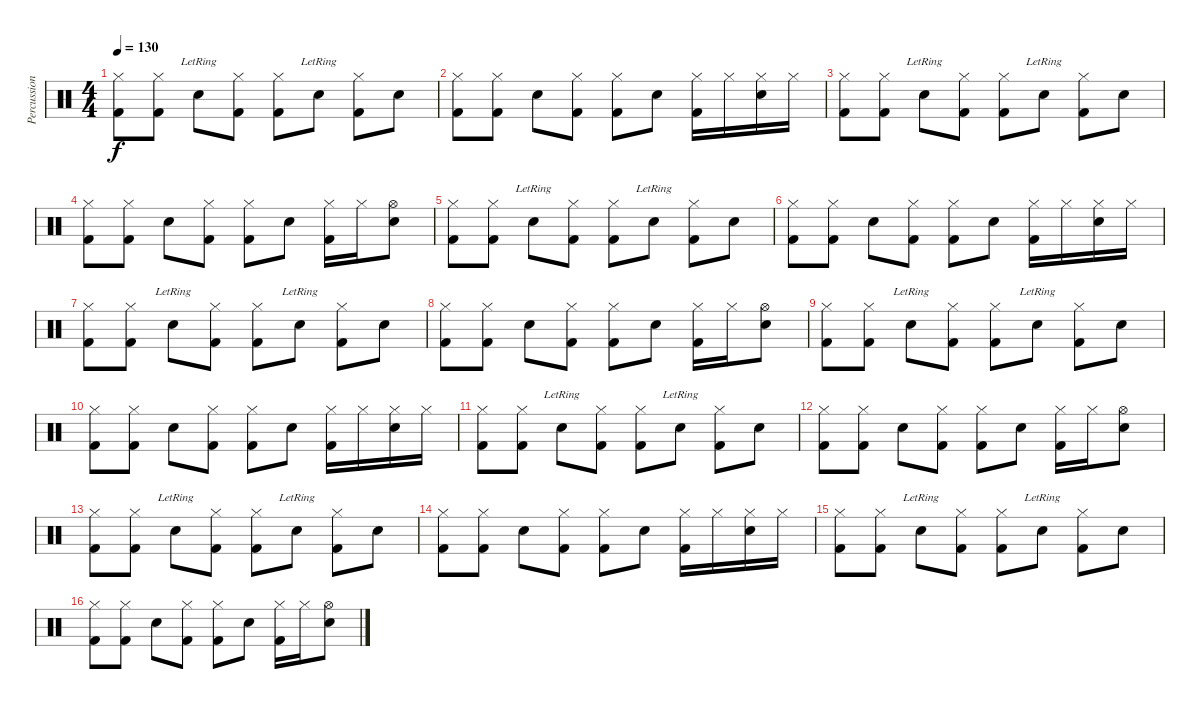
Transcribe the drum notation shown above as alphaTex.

\track ("Percussion" "Percussion") {instrument percussion}
\staff {score}
\articulation defaults
\ts (4 4)
\tempo 130
\clef neutral
\ks c
("Hi-Hat (closed)" "Kick (hit) 2").8{dy f} ("Hi-Hat (closed)" "Kick (hit) 2").8 "Snare (hit) 2"{lr}.8 ("Hi-Hat (closed)" "Kick (hit) 2").8 ("Hi-Hat (closed)" "Kick (hit) 2").8 "Snare (hit) 2"{lr}.8 ("Hi-Hat (closed)" "Kick (hit) 2").8 "Snare (hit) 2".8 |
("Hi-Hat (closed)" "Kick (hit) 2").8 ("Hi-Hat (closed)" "Kick (hit) 2").8 "Snare (hit) 2".8 ("Hi-Hat (closed)" "Kick (hit) 2").8 ("Hi-Hat (closed)" "Kick (hit) 2").8 "Snare (hit) 2".8 ("Hi-Hat (closed)" "Kick (hit) 2").16 "Hi-Hat (closed)".16 ("Hi-Hat (closed)" "Snare (hit) 2").16 "Hi-Hat (closed)".16 |
("Hi-Hat (closed)" "Kick (hit) 2").8 ("Hi-Hat (closed)" "Kick (hit) 2").8 "Snare (hit) 2"{lr}.8 ("Hi-Hat (closed)" "Kick (hit) 2").8 ("Hi-Hat (closed)" "Kick (hit) 2").8 "Snare (hit) 2"{lr}.8 ("Hi-Hat (closed)" "Kick (hit) 2").8 "Snare (hit) 2".8 |
("Hi-Hat (closed)" "Kick (hit) 2").8 ("Hi-Hat (closed)" "Kick (hit) 2").8 "Snare (hit) 2".8 ("Hi-Hat (closed)" "Kick (hit) 2").8 ("Hi-Hat (closed)" "Kick (hit) 2").8 "Snare (hit) 2".8 ("Hi-Hat (closed)" "Kick (hit) 2").16 "Hi-Hat (closed)".16 ("Hi-Hat (open)" "Snare (hit) 2").8 |
("Hi-Hat (closed)" "Kick (hit) 2").8 ("Hi-Hat (closed)" "Kick (hit) 2").8 "Snare (hit) 2"{lr}.8 ("Hi-Hat (closed)" "Kick (hit) 2").8 ("Hi-Hat (closed)" "Kick (hit) 2").8 "Snare (hit) 2"{lr}.8 ("Hi-Hat (closed)" "Kick (hit) 2").8 "Snare (hit) 2".8 |
("Hi-Hat (closed)" "Kick (hit) 2").8 ("Hi-Hat (closed)" "Kick (hit) 2").8 "Snare (hit) 2".8 ("Hi-Hat (closed)" "Kick (hit) 2").8 ("Hi-Hat (closed)" "Kick (hit) 2").8 "Snare (hit) 2".8 ("Hi-Hat (closed)" "Kick (hit) 2").16 "Hi-Hat (closed)".16 ("Hi-Hat (closed)" "Snare (hit) 2").16 "Hi-Hat (closed)".16 |
("Hi-Hat (closed)" "Kick (hit) 2").8 ("Hi-Hat (closed)" "Kick (hit) 2").8 "Snare (hit) 2"{lr}.8 ("Hi-Hat (closed)" "Kick (hit) 2").8 ("Hi-Hat (closed)" "Kick (hit) 2").8 "Snare (hit) 2"{lr}.8 ("Hi-Hat (closed)" "Kick (hit) 2").8 "Snare (hit) 2".8 |
("Hi-Hat (closed)" "Kick (hit) 2").8 ("Hi-Hat (closed)" "Kick (hit) 2").8 "Snare (hit) 2".8 ("Hi-Hat (closed)" "Kick (hit) 2").8 ("Hi-Hat (closed)" "Kick (hit) 2").8 "Snare (hit) 2".8 ("Hi-Hat (closed)" "Kick (hit) 2").16 "Hi-Hat (closed)".16 ("Hi-Hat (open)" "Snare (hit) 2").8 |
("Hi-Hat (closed)" "Kick (hit) 2").8 ("Hi-Hat (closed)" "Kick (hit) 2").8 "Snare (hit) 2"{lr}.8 ("Hi-Hat (closed)" "Kick (hit) 2").8 ("Hi-Hat (closed)" "Kick (hit) 2").8 "Snare (hit) 2"{lr}.8 ("Hi-Hat (closed)" "Kick (hit) 2").8 "Snare (hit) 2".8 |
("Hi-Hat (closed)" "Kick (hit) 2").8 ("Hi-Hat (closed)" "Kick (hit) 2").8 "Snare (hit) 2".8 ("Hi-Hat (closed)" "Kick (hit) 2").8 ("Hi-Hat (closed)" "Kick (hit) 2").8 "Snare (hit) 2".8 ("Hi-Hat (closed)" "Kick (hit) 2").16 "Hi-Hat (closed)".16 ("Hi-Hat (closed)" "Snare (hit) 2").16 "Hi-Hat (closed)".16 |
("Hi-Hat (closed)" "Kick (hit) 2").8 ("Hi-Hat (closed)" "Kick (hit) 2").8 "Snare (hit) 2"{lr}.8 ("Hi-Hat (closed)" "Kick (hit) 2").8 ("Hi-Hat (closed)" "Kick (hit) 2").8 "Snare (hit) 2"{lr}.8 ("Hi-Hat (closed)" "Kick (hit) 2").8 "Snare (hit) 2".8 |
("Hi-Hat (closed)" "Kick (hit) 2").8 ("Hi-Hat (closed)" "Kick (hit) 2").8 "Snare (hit) 2".8 ("Hi-Hat (closed)" "Kick (hit) 2").8 ("Hi-Hat (closed)" "Kick (hit) 2").8 "Snare (hit) 2".8 ("Hi-Hat (closed)" "Kick (hit) 2").16 "Hi-Hat (closed)".16 ("Hi-Hat (open)" "Snare (hit) 2").8 |
("Hi-Hat (closed)" "Kick (hit) 2").8 ("Hi-Hat (closed)" "Kick (hit) 2").8 "Snare (hit) 2"{lr}.8 ("Hi-Hat (closed)" "Kick (hit) 2").8 ("Hi-Hat (closed)" "Kick (hit) 2").8 "Snare (hit) 2"{lr}.8 ("Hi-Hat (closed)" "Kick (hit) 2").8 "Snare (hit) 2".8 |
("Hi-Hat (closed)" "Kick (hit) 2").8 ("Hi-Hat (closed)" "Kick (hit) 2").8 "Snare (hit) 2".8 ("Hi-Hat (closed)" "Kick (hit) 2").8 ("Hi-Hat (closed)" "Kick (hit) 2").8 "Snare (hit) 2".8 ("Hi-Hat (closed)" "Kick (hit) 2").16 "Hi-Hat (closed)".16 ("Hi-Hat (closed)" "Snare (hit) 2").16 "Hi-Hat (closed)".16 |
("Hi-Hat (closed)" "Kick (hit) 2").8 ("Hi-Hat (closed)" "Kick (hit) 2").8 "Snare (hit) 2"{lr}.8 ("Hi-Hat (closed)" "Kick (hit) 2").8 ("Hi-Hat (closed)" "Kick (hit) 2").8 "Snare (hit) 2"{lr}.8 ("Hi-Hat (closed)" "Kick (hit) 2").8 "Snare (hit) 2".8 |
("Hi-Hat (closed)" "Kick (hit) 2").8 ("Hi-Hat (closed)" "Kick (hit) 2").8 "Snare (hit) 2".8 ("Hi-Hat (closed)" "Kick (hit) 2").8 ("Hi-Hat (closed)" "Kick (hit) 2").8 "Snare (hit) 2".8 ("Hi-Hat (closed)" "Kick (hit) 2").16 "Hi-Hat (closed)".16 ("Hi-Hat (open)" "Snare (hit) 2").8
